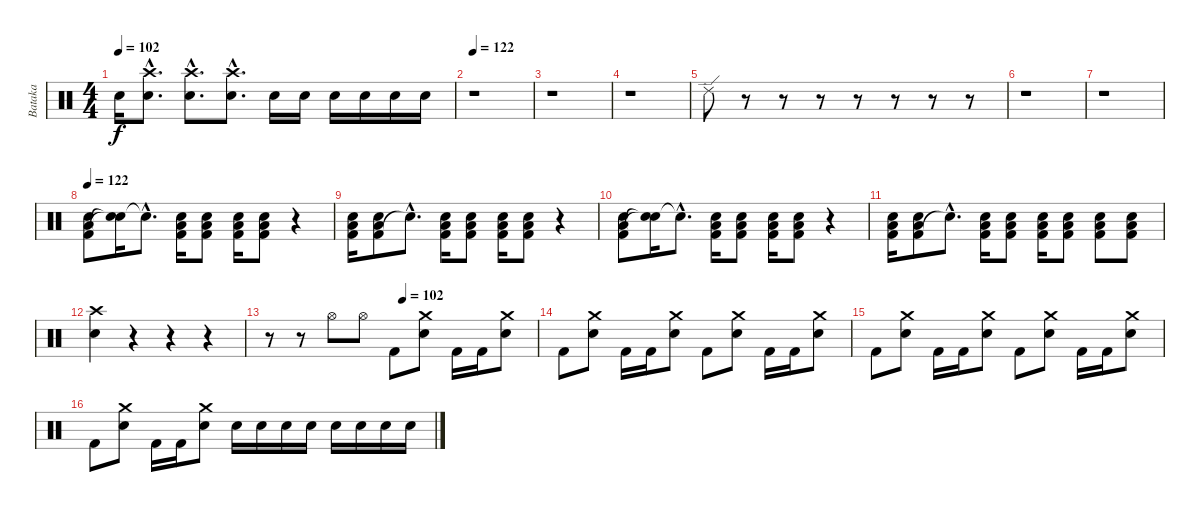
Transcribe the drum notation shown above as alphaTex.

\track ("Bataka" "Bataka") {instrument percussion}
\staff {score}
\articulation defaults
\ts (4 4)
\tempo 102
\clef neutral
\ks c "Snare (hit) 2".16{dy f}
("Crash high (hit)"{hac} "Snare (hit) 2"{hac}).8{d} ("Crash high (hit)"{hac} "Snare (hit) 2"{hac}).8{d} ("Crash high (hit)"{hac} "Snare (hit) 2"{hac}).8{d} "Snare (hit) 2".16 "Snare (hit) 2".16 "Snare (hit) 2".16 "Snare (hit) 2".16 "Snare (hit) 2".16 "Snare (hit) 2".16 |
\tempo 122
r.1 |
r.1 |
r.1 |
"Ride (edge) 2".8 r.8 r.8 r.8 r.8 r.8 r.8 r.8 |
r.1 |
r.1 |
\tempo 122
("Kick (hit) 2" "Low Floor Tom (hit)" "Snare (hit) 2").8 ("Snare (hit)"{t} "Snare (hit)"{t}).16 "Snare (hit)"{hac t}.8{d} ("Kick (hit) 2" "Low Floor Tom (hit)" "Snare (hit) 2").16 ("Kick (hit) 2" "Low Floor Tom (hit)" "Snare (hit) 2").8 ("Kick (hit) 2" "Low Floor Tom (hit)" "Snare (hit) 2").16 ("Kick (hit) 2" "Low Floor Tom (hit)" "Snare (hit) 2").8 r.4 |
("Kick (hit) 2" "Low Floor Tom (hit)" "Snare (hit) 2").16 ("Kick (hit) 2" "Low Floor Tom (hit)" "Snare (hit) 2").8 "Snare (hit)"{hac t}.8{d} ("Kick (hit) 2" "Low Floor Tom (hit)" "Snare (hit) 2").16 ("Kick (hit) 2" "Low Floor Tom (hit)" "Snare (hit) 2").8 ("Kick (hit) 2" "Low Floor Tom (hit)" "Snare (hit) 2").16 ("Kick (hit) 2" "Low Floor Tom (hit)" "Snare (hit) 2").8 r.4 |
("Kick (hit) 2" "Low Floor Tom (hit)" "Snare (hit) 2").8 ("Snare (hit)"{t} "Snare (hit)"{t}).16 "Snare (hit)"{hac t}.8{d} ("Kick (hit) 2" "Low Floor Tom (hit)" "Snare (hit) 2").16 ("Kick (hit) 2" "Low Floor Tom (hit)" "Snare (hit) 2").8 ("Kick (hit) 2" "Low Floor Tom (hit)" "Snare (hit) 2").16 ("Kick (hit) 2" "Low Floor Tom (hit)" "Snare (hit) 2").8 r.4 |
("Kick (hit) 2" "Low Floor Tom (hit)" "Snare (hit) 2").16 ("Kick (hit) 2" "Low Floor Tom (hit)" "Snare (hit) 2").8 "Snare (hit)"{hac t}.8{d} ("Kick (hit) 2" "Low Floor Tom (hit)" "Snare (hit) 2").16 ("Kick (hit) 2" "Low Floor Tom (hit)" "Snare (hit) 2").8 ("Kick (hit) 2" "Low Floor Tom (hit)" "Snare (hit) 2").16 ("Kick (hit) 2" "Low Floor Tom (hit)" "Snare (hit) 2").8 ("Kick (hit) 2" "Low Floor Tom (hit)" "Snare (hit) 2").8 ("Kick (hit) 2" "Low Floor Tom (hit)" "Snare (hit) 2").8 |
("Crash high (hit)" "Snare (hit) 2").4 r.4 r.4 r.4 |
\tempo (102 0.5)
r.8 r.8 "Hi-Hat (open)".8 "Hi-Hat (open)".8 "Kick (hit) 2".8 ("Crash medium (hit)" "Snare (hit) 2").8 "Kick (hit) 2".16 "Kick (hit) 2".16 ("Crash medium (hit)" "Snare (hit) 2").8 |
"Kick (hit) 2".8 ("Crash medium (hit)" "Snare (hit) 2").8 "Kick (hit) 2".16 "Kick (hit) 2".16 ("Crash medium (hit)" "Snare (hit) 2").8 "Kick (hit) 2".8 ("Crash medium (hit)" "Snare (hit) 2").8 "Kick (hit) 2".16 "Kick (hit) 2".16 ("Crash medium (hit)" "Snare (hit) 2").8 |
"Kick (hit) 2".8 ("Crash medium (hit)" "Snare (hit) 2").8 "Kick (hit) 2".16 "Kick (hit) 2".16 ("Crash medium (hit)" "Snare (hit) 2").8 "Kick (hit) 2".8 ("Crash medium (hit)" "Snare (hit) 2").8 "Kick (hit) 2".16 "Kick (hit) 2".16 ("Crash medium (hit)" "Snare (hit) 2").8 |
"Kick (hit) 2".8 ("Crash medium (hit)" "Snare (hit) 2").8 "Kick (hit) 2".16 "Kick (hit) 2".16 ("Crash medium (hit)" "Snare (hit) 2").8 "Snare (hit) 2".16 "Snare (hit) 2".16 "Snare (hit) 2".16 "Snare (hit) 2".16 "Snare (hit) 2".16 "Snare (hit) 2".16 "Snare (hit) 2".16 "Snare (hit) 2".16
